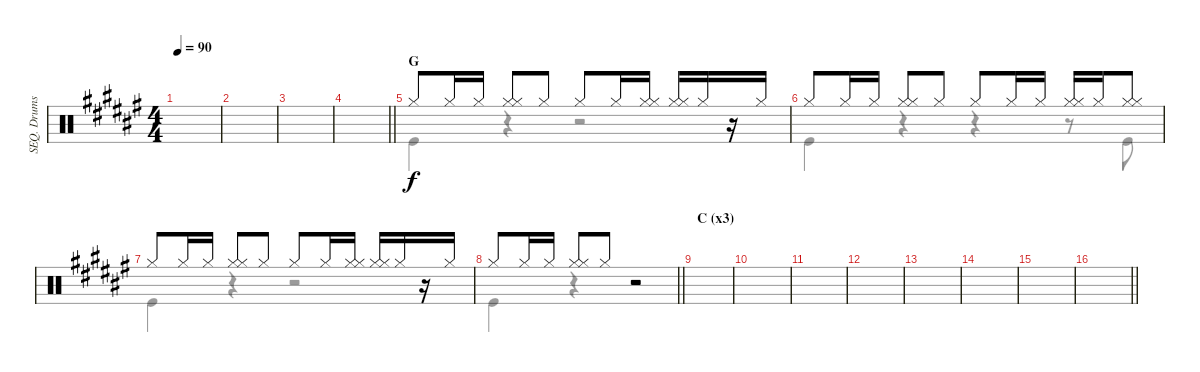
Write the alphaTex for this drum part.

\track ("SEQ. Drums" "SEQ. Drums") {instrument percussion}
\staff {score}
\articulation defaults
\voice
\ts (4 4)
\tempo 90
\clef neutral
\ks f#
|
|
|
\barLineRight lightlight
|
\section ("" "G")
"Hi-Hat (closed)".8 "Hi-Hat (closed)".16 "Hi-Hat (closed)".16 ("Hi-Hat (closed)" "Hi-Hat (closed)").8 "Hi-Hat (closed)".8 "Hi-Hat (closed)".8 "Hi-Hat (closed)".16 ("Hi-Hat (closed)" "Hi-Hat (closed)").16 ("Hi-Hat (closed)" "Hi-Hat (closed)").16 "Hi-Hat (closed)".16 r.16 "Hi-Hat (closed)".16 |
"Hi-Hat (closed)".8 "Hi-Hat (closed)".16 "Hi-Hat (closed)".16 ("Hi-Hat (closed)" "Hi-Hat (closed)").8 "Hi-Hat (closed)".8 "Hi-Hat (closed)".8 "Hi-Hat (closed)".16 "Hi-Hat (closed)".16 ("Hi-Hat (closed)" "Hi-Hat (closed)").16 "Hi-Hat (closed)".16 ("Hi-Hat (closed)" "Hi-Hat (closed)").8 |
"Hi-Hat (closed)".8 "Hi-Hat (closed)".16 "Hi-Hat (closed)".16 ("Hi-Hat (closed)" "Hi-Hat (closed)").8 "Hi-Hat (closed)".8 "Hi-Hat (closed)".8 "Hi-Hat (closed)".16 ("Hi-Hat (closed)" "Hi-Hat (closed)").16 ("Hi-Hat (closed)" "Hi-Hat (closed)").16 "Hi-Hat (closed)".16 r.16 "Hi-Hat (closed)".16 |
\barLineRight lightlight "Hi-Hat (closed)".8 "Hi-Hat (closed)".16 "Hi-Hat (closed)".16
("Hi-Hat (closed)" "Hi-Hat (closed)").8 "Hi-Hat (closed)".8 r.2 |
\section ("" "C (x3)")
|
|
|
|
|
|
|
\barLineRight lightlight
\voice
\clef neutral
\ottava regular
\simile none
\ks f#
|
|
|
\barLineRight lightlight
|
"Kick (hit)".4 r.4 r.2 |
"Kick (hit)".4 r.4 r.4 r.8 "Kick (hit)".8 |
"Kick (hit)".4 r.4 r.2 |
\barLineRight lightlight "Kick (hit)".4
r.4 r.2 |
|
|
|
|
|
|
|
\barLineRight lightlight
